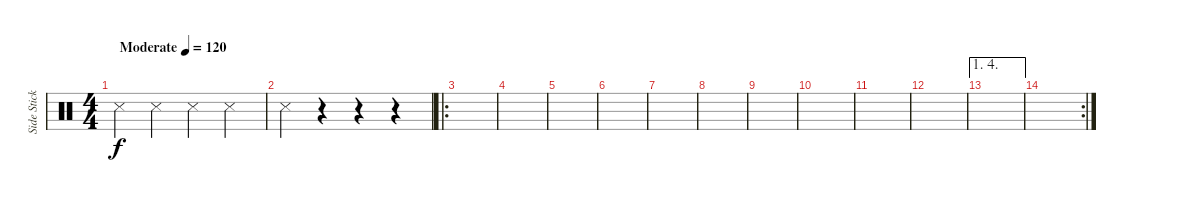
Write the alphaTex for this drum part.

\track ("Side Stick" "Side Stick") {instrument percussion}
\staff {score}
\articulation defaults
\ts (4 4)
\tempo (120 "Moderate")
\clef neutral
\ks c "Snare (side stick) 3".4{dy f} "Snare (side stick) 3".4 "Snare (side stick) 3".4 "Snare (side stick) 3".4
|
"Snare (side stick) 3".4 r.4 r.4 r.4 |
\ro
|
|
|
|
|
|
|
|
|
|
\ae (1 4)
|
\rc 2
